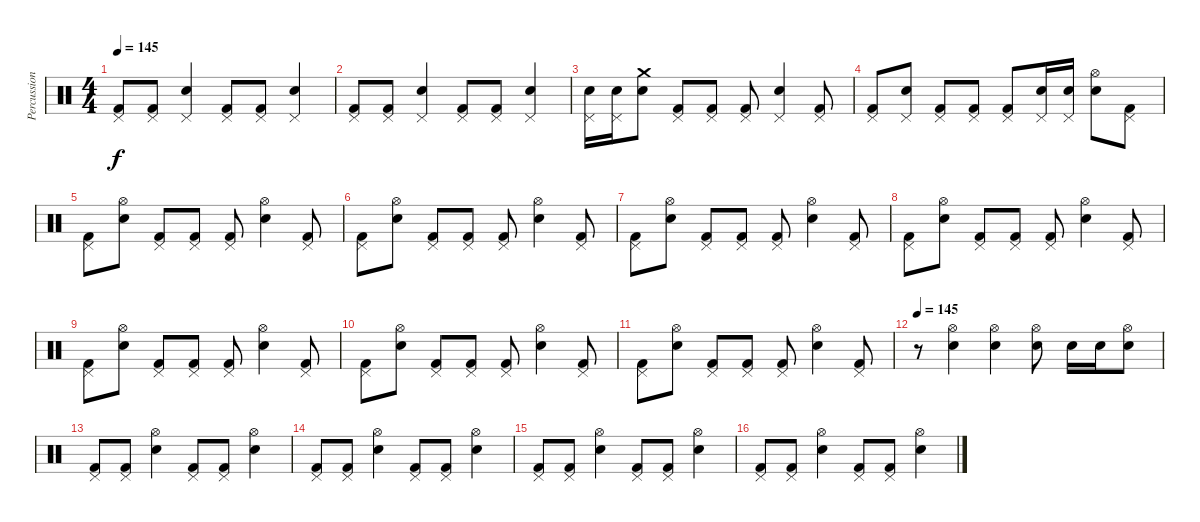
\track ("Percussion" "Percussion") {instrument percussion}
\staff {score}
\articulation defaults
\ts (4 4)
\tempo 145
\clef neutral
\ks c
("Pedal Hi-Hat (hit)" "Kick (hit) 2").8{dy f} ("Pedal Hi-Hat (hit)" "Kick (hit) 2").8 ("Pedal Hi-Hat (hit)" "Snare (hit) 2").4 ("Pedal Hi-Hat (hit)" "Kick (hit) 2").8 ("Pedal Hi-Hat (hit)" "Kick (hit) 2").8 ("Pedal Hi-Hat (hit)" "Snare (hit) 2").4 |
("Pedal Hi-Hat (hit)" "Kick (hit) 2").8 ("Pedal Hi-Hat (hit)" "Kick (hit) 2").8 ("Pedal Hi-Hat (hit)" "Snare (hit) 2").4 ("Pedal Hi-Hat (hit)" "Kick (hit) 2").8 ("Pedal Hi-Hat (hit)" "Kick (hit) 2").8 ("Pedal Hi-Hat (hit)" "Snare (hit) 2").4 |
("Pedal Hi-Hat (hit)" "Snare (hit) 2").16 ("Pedal Hi-Hat (hit)" "Snare (hit) 2").16 ("Crash medium (hit)" "Snare (hit) 2").8 ("Pedal Hi-Hat (hit)" "Kick (hit) 2").8 ("Pedal Hi-Hat (hit)" "Kick (hit) 2").8 ("Pedal Hi-Hat (hit)" "Kick (hit) 2").8 ("Pedal Hi-Hat (hit)" "Snare (hit) 2").4 ("Pedal Hi-Hat (hit)" "Kick (hit) 2").8 |
("Pedal Hi-Hat (hit)" "Kick (hit) 2").8 ("Pedal Hi-Hat (hit)" "Snare (hit) 2").8 ("Pedal Hi-Hat (hit)" "Kick (hit) 2").8 ("Pedal Hi-Hat (hit)" "Kick (hit) 2").8 ("Pedal Hi-Hat (hit)" "Kick (hit) 2").8 ("Pedal Hi-Hat (hit)" "Snare (hit) 2").16 ("Pedal Hi-Hat (hit)" "Snare (hit) 2").16 ("Hi-Hat (open)" "Snare (hit) 2").8 ("Pedal Hi-Hat (hit)" "Kick (hit) 2").8 |
("Pedal Hi-Hat (hit)" "Kick (hit) 2").8 ("Hi-Hat (open)" "Snare (hit) 2").8 ("Pedal Hi-Hat (hit)" "Kick (hit) 2").8 ("Pedal Hi-Hat (hit)" "Kick (hit) 2").8 ("Pedal Hi-Hat (hit)" "Kick (hit) 2").8 ("Hi-Hat (open)" "Snare (hit) 2").4 ("Pedal Hi-Hat (hit)" "Kick (hit) 2").8 |
("Pedal Hi-Hat (hit)" "Kick (hit) 2").8 ("Hi-Hat (open)" "Snare (hit) 2").8 ("Pedal Hi-Hat (hit)" "Kick (hit) 2").8 ("Pedal Hi-Hat (hit)" "Kick (hit) 2").8 ("Pedal Hi-Hat (hit)" "Kick (hit) 2").8 ("Hi-Hat (open)" "Snare (hit) 2").4 ("Pedal Hi-Hat (hit)" "Kick (hit) 2").8 |
("Pedal Hi-Hat (hit)" "Kick (hit) 2").8 ("Hi-Hat (open)" "Snare (hit) 2").8 ("Pedal Hi-Hat (hit)" "Kick (hit) 2").8 ("Pedal Hi-Hat (hit)" "Kick (hit) 2").8 ("Pedal Hi-Hat (hit)" "Kick (hit) 2").8 ("Hi-Hat (open)" "Snare (hit) 2").4 ("Pedal Hi-Hat (hit)" "Kick (hit) 2").8 |
("Pedal Hi-Hat (hit)" "Kick (hit) 2").8 ("Hi-Hat (open)" "Snare (hit) 2").8 ("Pedal Hi-Hat (hit)" "Kick (hit) 2").8 ("Pedal Hi-Hat (hit)" "Kick (hit) 2").8 ("Pedal Hi-Hat (hit)" "Kick (hit) 2").8 ("Hi-Hat (open)" "Snare (hit) 2").4 ("Pedal Hi-Hat (hit)" "Kick (hit) 2").8 |
("Pedal Hi-Hat (hit)" "Kick (hit) 2").8 ("Hi-Hat (open)" "Snare (hit) 2").8 ("Pedal Hi-Hat (hit)" "Kick (hit) 2").8 ("Pedal Hi-Hat (hit)" "Kick (hit) 2").8 ("Pedal Hi-Hat (hit)" "Kick (hit) 2").8 ("Hi-Hat (open)" "Snare (hit) 2").4 ("Pedal Hi-Hat (hit)" "Kick (hit) 2").8 |
("Pedal Hi-Hat (hit)" "Kick (hit) 2").8 ("Hi-Hat (open)" "Snare (hit) 2").8 ("Pedal Hi-Hat (hit)" "Kick (hit) 2").8 ("Pedal Hi-Hat (hit)" "Kick (hit) 2").8 ("Pedal Hi-Hat (hit)" "Kick (hit) 2").8 ("Hi-Hat (open)" "Snare (hit) 2").4 ("Pedal Hi-Hat (hit)" "Kick (hit) 2").8 |
("Pedal Hi-Hat (hit)" "Kick (hit) 2").8 ("Hi-Hat (open)" "Snare (hit) 2").8 ("Pedal Hi-Hat (hit)" "Kick (hit) 2").8 ("Pedal Hi-Hat (hit)" "Kick (hit) 2").8 ("Pedal Hi-Hat (hit)" "Kick (hit) 2").8 ("Hi-Hat (open)" "Snare (hit) 2").4 ("Pedal Hi-Hat (hit)" "Kick (hit) 2").8 |
\tempo 145
r.8 ("Hi-Hat (open)" "Snare (hit) 2").4 ("Hi-Hat (open)" "Snare (hit) 2").4 ("Hi-Hat (open)" "Snare (hit) 2").8 "Snare (hit) 2".16 "Snare (hit) 2".16 ("Hi-Hat (open)" "Snare (hit) 2").8 |
("Pedal Hi-Hat (hit)" "Kick (hit) 2").8 ("Pedal Hi-Hat (hit)" "Kick (hit) 2").8 ("Hi-Hat (open)" "Snare (hit) 2").4 ("Pedal Hi-Hat (hit)" "Kick (hit) 2").8 ("Pedal Hi-Hat (hit)" "Kick (hit) 2").8 ("Hi-Hat (open)" "Snare (hit) 2").4 |
("Pedal Hi-Hat (hit)" "Kick (hit) 2").8 ("Pedal Hi-Hat (hit)" "Kick (hit) 2").8 ("Hi-Hat (open)" "Snare (hit) 2").4 ("Pedal Hi-Hat (hit)" "Kick (hit) 2").8 ("Pedal Hi-Hat (hit)" "Kick (hit) 2").8 ("Hi-Hat (open)" "Snare (hit) 2").4 |
("Pedal Hi-Hat (hit)" "Kick (hit) 2").8 ("Pedal Hi-Hat (hit)" "Kick (hit) 2").8 ("Hi-Hat (open)" "Snare (hit) 2").4 ("Pedal Hi-Hat (hit)" "Kick (hit) 2").8 ("Pedal Hi-Hat (hit)" "Kick (hit) 2").8 ("Hi-Hat (open)" "Snare (hit) 2").4 |
("Pedal Hi-Hat (hit)" "Kick (hit) 2").8 ("Pedal Hi-Hat (hit)" "Kick (hit) 2").8 ("Hi-Hat (open)" "Snare (hit) 2").4 ("Pedal Hi-Hat (hit)" "Kick (hit) 2").8 ("Pedal Hi-Hat (hit)" "Kick (hit) 2").8 ("Hi-Hat (open)" "Snare (hit) 2").4
